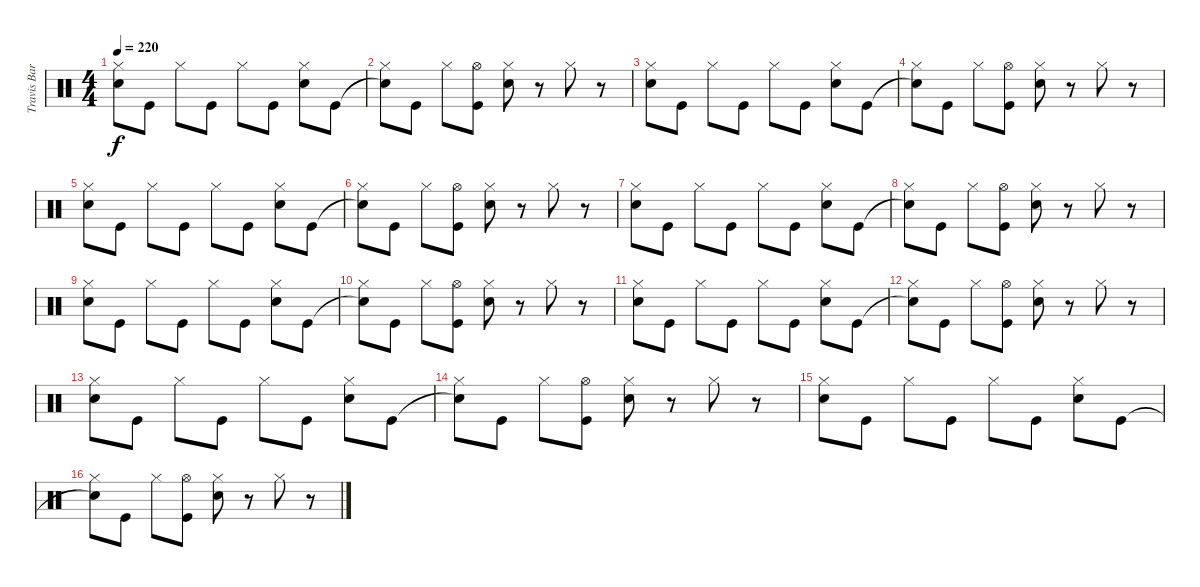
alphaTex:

\track ("Travis Barker (Drums)" "Travis Bar") {instrument percussion}
\staff {score}
\articulation defaults
\ts (4 4)
\tempo 220
\clef neutral
\ks c
("Electric Snare (hit)" "Hi-Hat (closed)").8{dy f} "Kick (hit)".8 "Hi-Hat (closed)".8 "Kick (hit)".8 "Hi-Hat (closed)".8 "Kick (hit)".8 ("Electric Snare (hit)" "Hi-Hat (closed)").8 "Kick (hit)".8 |
("Snare (hit)"{t} "Hi-Hat (closed)").8 "Kick (hit)".8 "Hi-Hat (closed)".8 ("Kick (hit)" "Hi-Hat (open)").8 ("Electric Snare (hit)" "Hi-Hat (closed)").8 r.8 "Hi-Hat (closed)".8 r.8 |
("Electric Snare (hit)" "Hi-Hat (closed)").8 "Kick (hit)".8 "Hi-Hat (closed)".8 "Kick (hit)".8 "Hi-Hat (closed)".8 "Kick (hit)".8 ("Electric Snare (hit)" "Hi-Hat (closed)").8 "Kick (hit)".8 |
("Snare (hit)"{t} "Hi-Hat (closed)").8 "Kick (hit)".8 "Hi-Hat (closed)".8 ("Kick (hit)" "Hi-Hat (open)").8 ("Electric Snare (hit)" "Hi-Hat (closed)").8 r.8 "Hi-Hat (closed)".8 r.8 |
("Electric Snare (hit)" "Hi-Hat (closed)").8 "Kick (hit)".8 "Hi-Hat (closed)".8 "Kick (hit)".8 "Hi-Hat (closed)".8 "Kick (hit)".8 ("Electric Snare (hit)" "Hi-Hat (closed)").8 "Kick (hit)".8 |
("Snare (hit)"{t} "Hi-Hat (closed)").8 "Kick (hit)".8 "Hi-Hat (closed)".8 ("Kick (hit)" "Hi-Hat (open)").8 ("Electric Snare (hit)" "Hi-Hat (closed)").8 r.8 "Hi-Hat (closed)".8 r.8 |
("Electric Snare (hit)" "Hi-Hat (closed)").8 "Kick (hit)".8 "Hi-Hat (closed)".8 "Kick (hit)".8 "Hi-Hat (closed)".8 "Kick (hit)".8 ("Electric Snare (hit)" "Hi-Hat (closed)").8 "Kick (hit)".8 |
("Snare (hit)"{t} "Hi-Hat (closed)").8 "Kick (hit)".8 "Hi-Hat (closed)".8 ("Kick (hit)" "Hi-Hat (open)").8 ("Electric Snare (hit)" "Hi-Hat (closed)").8 r.8 "Hi-Hat (closed)".8 r.8 |
("Electric Snare (hit)" "Hi-Hat (closed)").8 "Kick (hit)".8 "Hi-Hat (closed)".8 "Kick (hit)".8 "Hi-Hat (closed)".8 "Kick (hit)".8 ("Electric Snare (hit)" "Hi-Hat (closed)").8 "Kick (hit)".8 |
("Snare (hit)"{t} "Hi-Hat (closed)").8 "Kick (hit)".8 "Hi-Hat (closed)".8 ("Kick (hit)" "Hi-Hat (open)").8 ("Electric Snare (hit)" "Hi-Hat (closed)").8 r.8 "Hi-Hat (closed)".8 r.8 |
("Electric Snare (hit)" "Hi-Hat (closed)").8 "Kick (hit)".8 "Hi-Hat (closed)".8 "Kick (hit)".8 "Hi-Hat (closed)".8 "Kick (hit)".8 ("Electric Snare (hit)" "Hi-Hat (closed)").8 "Kick (hit)".8 |
("Snare (hit)"{t} "Hi-Hat (closed)").8 "Kick (hit)".8 "Hi-Hat (closed)".8 ("Kick (hit)" "Hi-Hat (open)").8 ("Electric Snare (hit)" "Hi-Hat (closed)").8 r.8 "Hi-Hat (closed)".8 r.8 |
("Electric Snare (hit)" "Hi-Hat (closed)").8 "Kick (hit)".8 "Hi-Hat (closed)".8 "Kick (hit)".8 "Hi-Hat (closed)".8 "Kick (hit)".8 ("Electric Snare (hit)" "Hi-Hat (closed)").8 "Kick (hit)".8 |
("Snare (hit)"{t} "Hi-Hat (closed)").8 "Kick (hit)".8 "Hi-Hat (closed)".8 ("Kick (hit)" "Hi-Hat (open)").8 ("Electric Snare (hit)" "Hi-Hat (closed)").8 r.8 "Hi-Hat (closed)".8 r.8 |
("Electric Snare (hit)" "Hi-Hat (closed)").8 "Kick (hit)".8 "Hi-Hat (closed)".8 "Kick (hit)".8 "Hi-Hat (closed)".8 "Kick (hit)".8 ("Electric Snare (hit)" "Hi-Hat (closed)").8 "Kick (hit)".8 |
("Snare (hit)"{t} "Hi-Hat (closed)").8 "Kick (hit)".8 "Hi-Hat (closed)".8 ("Kick (hit)" "Hi-Hat (open)").8 ("Electric Snare (hit)" "Hi-Hat (closed)").8 r.8 "Hi-Hat (closed)".8 r.8
